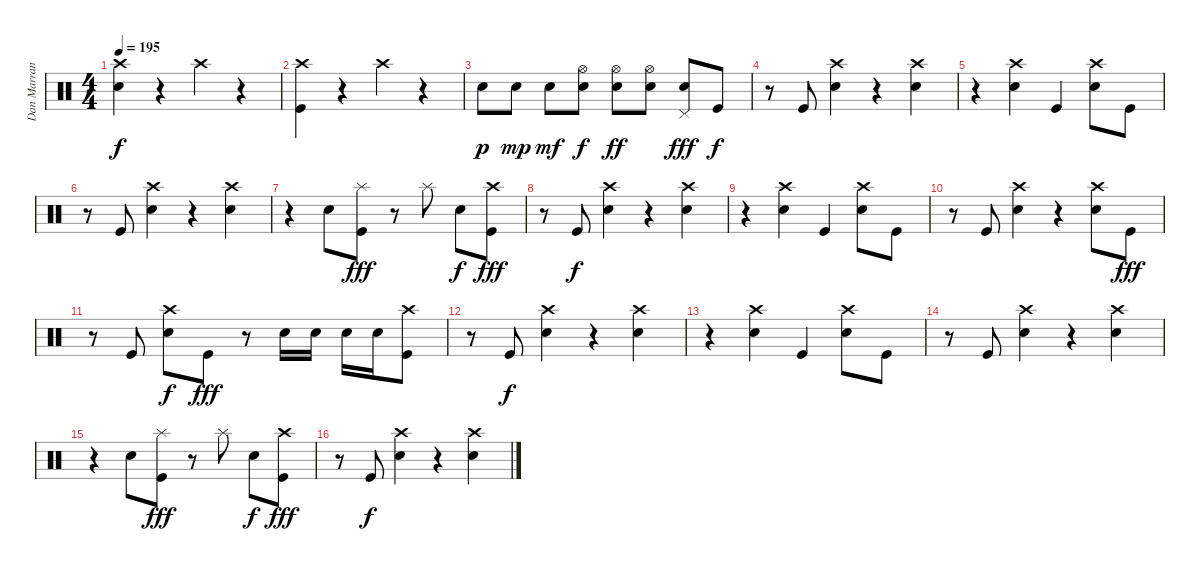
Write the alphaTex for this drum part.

\track ("Dan Marranca" "Dan Marran") {instrument percussion}
\staff {score}
\articulation defaults
\ts (4 4)
\tempo 195
\clef neutral
\ks c
("Crash high (hit)" "Electric Snare (hit)").4{dy f} r.4 "Crash high (hit)".4 r.4 |
("Crash high (hit)" "Kick (hit)").4 r.4 "Crash high (hit)".4 r.4 |
"Electric Snare (hit)".8{dy p} "Electric Snare (hit)".8{dy mp} "Electric Snare (hit)".8{dy mf} ("Hi-Hat (open)" "Electric Snare (hit)").8{dy f} ("Hi-Hat (open)" "Electric Snare (hit)").8{dy ff} ("Hi-Hat (open)" "Electric Snare (hit)").8 ("Pedal Hi-Hat (hit)" "Electric Snare (hit)").8{dy fff} "Kick (hit)".8{dy f} |
r.8 "Kick (hit)".8 ("Crash high (hit)" "Electric Snare (hit)").4 r.4 ("Crash high (hit)" "Electric Snare (hit)").4 |
r.4 ("Crash high (hit)" "Electric Snare (hit)").4 "Kick (hit)".4 ("Crash high (hit)" "Electric Snare (hit)").8 "Kick (hit)".8 |
r.8 "Kick (hit)".8 ("Crash high (hit)" "Electric Snare (hit)").4 r.4 ("Crash high (hit)" "Electric Snare (hit)").4 |
r.4 "Electric Snare (hit)".8 ("Splash (hit)" "Kick (hit)").8{dy fff} r.8 "Splash (hit)".8 "Electric Snare (hit)".8{dy f} ("Crash high (hit)" "Kick (hit)").8{dy fff} |
r.8 "Kick (hit)".8{dy f} ("Crash high (hit)" "Electric Snare (hit)").4 r.4 ("Crash high (hit)" "Electric Snare (hit)").4 |
r.4 ("Crash high (hit)" "Electric Snare (hit)").4 "Kick (hit)".4 ("Crash high (hit)" "Electric Snare (hit)").8 "Kick (hit)".8 |
r.8 "Kick (hit)".8 ("Crash high (hit)" "Electric Snare (hit)").4 r.4 ("Crash high (hit)" "Electric Snare (hit)").8 "Kick (hit)".8{dy fff} |
r.8 "Kick (hit)".8 ("Crash high (hit)" "Electric Snare (hit)").8{dy f} "Kick (hit)".8{dy fff} r.8 "Electric Snare (hit)".16 "Electric Snare (hit)".16 "Electric Snare (hit)".16 "Electric Snare (hit)".16 ("Crash high (hit)" "Kick (hit)").8 |
r.8 "Kick (hit)".8{dy f} ("Crash high (hit)" "Electric Snare (hit)").4 r.4 ("Crash high (hit)" "Electric Snare (hit)").4 |
r.4 ("Crash high (hit)" "Electric Snare (hit)").4 "Kick (hit)".4 ("Crash high (hit)" "Electric Snare (hit)").8 "Kick (hit)".8 |
r.8 "Kick (hit)".8 ("Crash high (hit)" "Electric Snare (hit)").4 r.4 ("Crash high (hit)" "Electric Snare (hit)").4 |
r.4 "Electric Snare (hit)".8 ("Splash (hit)" "Kick (hit)").8{dy fff} r.8 "Splash (hit)".8 "Electric Snare (hit)".8{dy f} ("Crash high (hit)" "Kick (hit)").8{dy fff} |
r.8 "Kick (hit)".8{dy f} ("Crash high (hit)" "Electric Snare (hit)").4 r.4 ("Crash high (hit)" "Electric Snare (hit)").4
